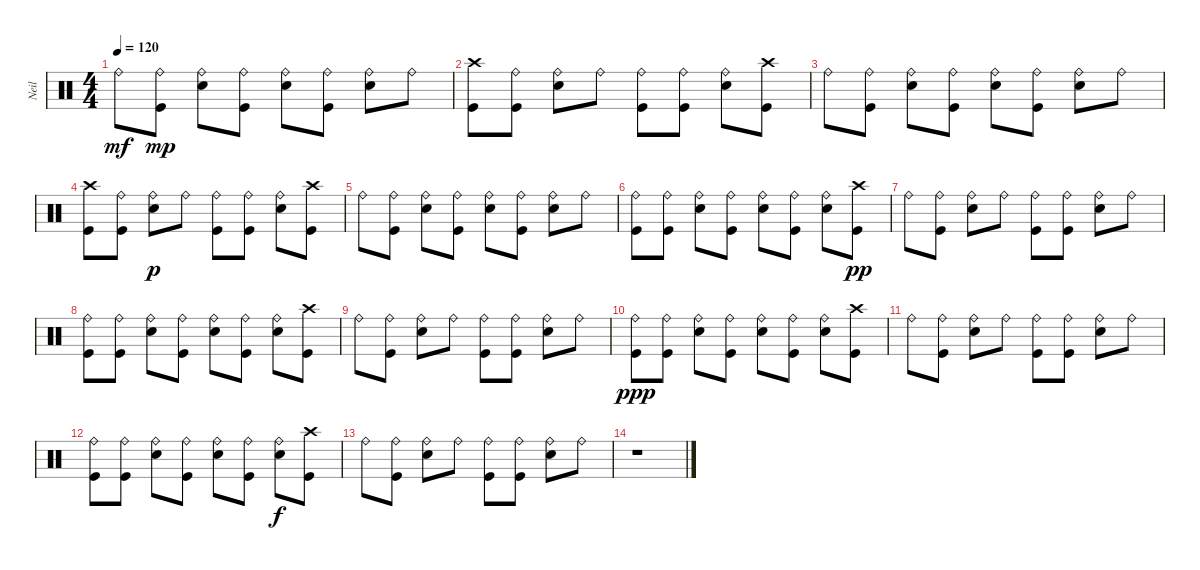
\track ("Neil" "Neil") {instrument percussion}
\staff {score}
\articulation defaults
\ts (4 4)
\tempo 120
\clef neutral
\ks c "Ride (bell)".8{dy mf}
("Kick (hit)" "Ride (bell)").8{dy mp} ("Snare (hit) 2" "Ride (bell)").8 ("Kick (hit)" "Ride (bell)").8 ("Snare (hit) 2" "Ride (bell)").8 ("Kick (hit)" "Ride (bell)").8 ("Snare (hit) 2" "Ride (bell)").8 "Ride (bell)".8 |
("Kick (hit)" "Crash high (hit)").8 ("Kick (hit)" "Ride (bell)").8 ("Snare (hit) 2" "Ride (bell)").8 "Ride (bell)".8 ("Kick (hit)" "Ride (bell)").8 ("Kick (hit)" "Ride (bell)").8 ("Snare (hit) 2" "Ride (bell)").8 ("Kick (hit)" "Crash high (hit)").8 |
"Ride (bell)".8 ("Kick (hit)" "Ride (bell)").8 ("Snare (hit) 2" "Ride (bell)").8 ("Kick (hit)" "Ride (bell)").8 ("Snare (hit) 2" "Ride (bell)").8 ("Kick (hit)" "Ride (bell)").8 ("Snare (hit) 2" "Ride (bell)").8 "Ride (bell)".8 |
("Kick (hit)" "Crash high (hit)").8 ("Kick (hit)" "Ride (bell)").8 ("Snare (hit) 2" "Ride (bell)").8{dy p} "Ride (bell)".8 ("Kick (hit)" "Ride (bell)").8 ("Kick (hit)" "Ride (bell)").8 ("Snare (hit) 2" "Ride (bell)").8 ("Kick (hit)" "Crash high (hit)").8 |
"Ride (bell)".8 ("Kick (hit)" "Ride (bell)").8 ("Snare (hit) 2" "Ride (bell)").8 ("Kick (hit)" "Ride (bell)").8 ("Snare (hit) 2" "Ride (bell)").8 ("Kick (hit)" "Ride (bell)").8 ("Snare (hit) 2" "Ride (bell)").8 "Ride (bell)".8 |
("Kick (hit)" "Ride (bell)").8 ("Kick (hit)" "Ride (bell)").8 ("Snare (hit) 2" "Ride (bell)").8 ("Kick (hit)" "Ride (bell)").8 ("Snare (hit) 2" "Ride (bell)").8 ("Kick (hit)" "Ride (bell)").8 ("Snare (hit) 2" "Ride (bell)").8 ("Kick (hit)" "Crash high (hit)").8{dy pp} |
"Ride (bell)".8 ("Kick (hit)" "Ride (bell)").8 ("Snare (hit) 2" "Ride (bell)").8 "Ride (bell)".8 ("Kick (hit)" "Ride (bell)").8 ("Kick (hit)" "Ride (bell)").8 ("Snare (hit) 2" "Ride (bell)").8 "Ride (bell)".8 |
("Kick (hit)" "Ride (bell)").8 ("Kick (hit)" "Ride (bell)").8 ("Snare (hit) 2" "Ride (bell)").8 ("Kick (hit)" "Ride (bell)").8 ("Snare (hit) 2" "Ride (bell)").8 ("Kick (hit)" "Ride (bell)").8 ("Snare (hit) 2" "Ride (bell)").8 ("Kick (hit)" "Crash high (hit)").8 |
"Ride (bell)".8 ("Kick (hit)" "Ride (bell)").8 ("Snare (hit) 2" "Ride (bell)").8 "Ride (bell)".8 ("Kick (hit)" "Ride (bell)").8 ("Kick (hit)" "Ride (bell)").8 ("Snare (hit) 2" "Ride (bell)").8 "Ride (bell)".8 |
("Kick (hit)" "Ride (bell)").8{dy ppp} ("Kick (hit)" "Ride (bell)").8 ("Snare (hit) 2" "Ride (bell)").8 ("Kick (hit)" "Ride (bell)").8 ("Snare (hit) 2" "Ride (bell)").8 ("Kick (hit)" "Ride (bell)").8 ("Snare (hit) 2" "Ride (bell)").8 ("Kick (hit)" "Crash high (hit)").8 |
"Ride (bell)".8 ("Kick (hit)" "Ride (bell)").8 ("Snare (hit) 2" "Ride (bell)").8 "Ride (bell)".8 ("Kick (hit)" "Ride (bell)").8 ("Kick (hit)" "Ride (bell)").8 ("Snare (hit) 2" "Ride (bell)").8 "Ride (bell)".8 |
("Kick (hit)" "Ride (bell)").8 ("Kick (hit)" "Ride (bell)").8 ("Snare (hit) 2" "Ride (bell)").8 ("Kick (hit)" "Ride (bell)").8 ("Snare (hit) 2" "Ride (bell)").8 ("Kick (hit)" "Ride (bell)").8 ("Snare (hit) 2" "Ride (bell)").8{dy f} ("Kick (hit)" "Crash high (hit)").8 |
"Ride (bell)".8 ("Kick (hit)" "Ride (bell)").8 ("Snare (hit) 2" "Ride (bell)").8 "Ride (bell)".8 ("Kick (hit)" "Ride (bell)").8 ("Kick (hit)" "Ride (bell)").8 ("Snare (hit) 2" "Ride (bell)").8 "Ride (bell)".8 |
r.1
